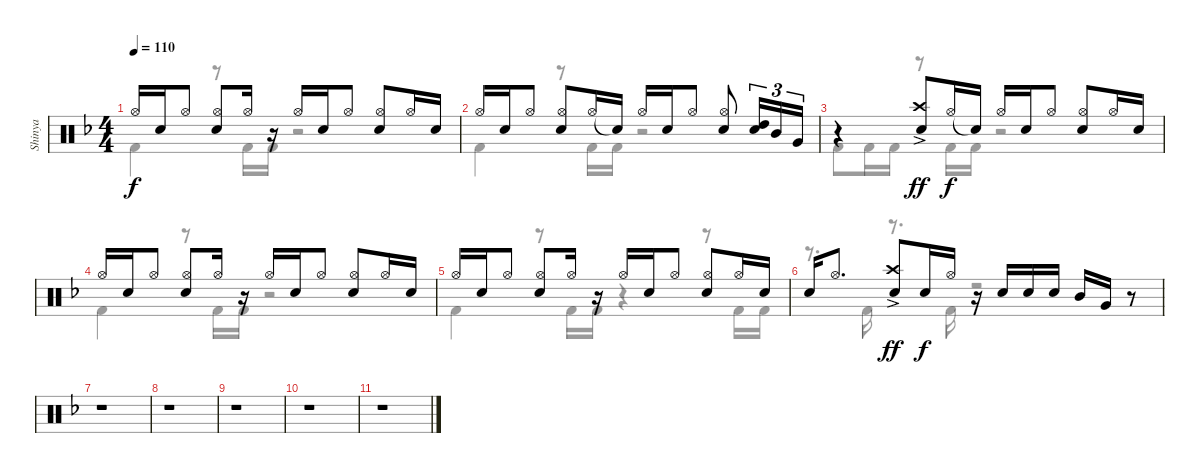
\track ("Shinya" "Shinya") {instrument percussion}
\staff {score}
\articulation defaults
\voice
\ts (4 4)
\tempo 110
\clef neutral
\ks dminor "Hi-Hat (open)".16{dy f} "Snare (hit) 2".16 "Hi-Hat (open)".8
("Hi-Hat (open)" "Snare (hit) 2").8 "Hi-Hat (open)".16 r.16 "Hi-Hat (open)".16 "Snare (hit) 2".16 "Hi-Hat (open)".8 ("Hi-Hat (open)" "Snare (hit) 2").8 "Hi-Hat (open)".16 "Snare (hit) 2".16 |
"Hi-Hat (open)".16 "Snare (hit) 2".16 "Hi-Hat (open)".8 ("Hi-Hat (open)" "Snare (hit) 2").8 "Hi-Hat (open)".16 "Snare (hit)"{t}.16 "Hi-Hat (open)".16 "Snare (hit) 2".16 "Hi-Hat (open)".8 ("Hi-Hat (open)" "Snare (hit) 2").8 ("High Tom (hit)" "Snare (hit) 2").16{tu (3 2)} "Mid Tom (hit)".16{tu (3 2)} "Very Low Tom (hit)".16{tu (3 2)} |
r.4 ("Crash high (hit)"{ac} "Snare (hit) 2").8{dy ff} "Hi-Hat (open)".16{dy f} "Snare (hit)"{t}.16 "Hi-Hat (open)".16 "Snare (hit) 2".16 "Hi-Hat (open)".8 ("Hi-Hat (open)" "Snare (hit) 2").8 "Hi-Hat (open)".16 "Snare (hit) 2".16 |
"Hi-Hat (open)".16 "Snare (hit) 2".16 "Hi-Hat (open)".8 ("Hi-Hat (open)" "Snare (hit) 2").8 "Hi-Hat (open)".16 r.16 "Hi-Hat (open)".16 "Snare (hit) 2".16 "Hi-Hat (open)".8 ("Hi-Hat (open)" "Snare (hit) 2").8 "Hi-Hat (open)".16 "Snare (hit) 2".16 |
"Hi-Hat (open)".16 "Snare (hit) 2".16 "Hi-Hat (open)".8 ("Hi-Hat (open)" "Snare (hit) 2").8 "Hi-Hat (open)".16 r.16 "Hi-Hat (open)".16 "Snare (hit) 2".16 "Hi-Hat (open)".8 ("Hi-Hat (open)" "Snare (hit) 2").8 "Hi-Hat (open)".16 "Snare (hit) 2".16 |
"Snare (hit) 2".16 "Hi-Hat (open)".8{d} ("Crash high (hit)"{ac} "Snare (hit) 2").8{dy ff} "Snare (hit) 2".16{dy f} "Hi-Hat (open)".16 r.16 "Snare (hit) 2".16 "Snare (hit) 2".16 "Snare (hit) 2".16 "Mid Tom (hit)".16 "Very Low Tom (hit)".16 r.8 |
r.1 |
r.1 |
r.1 |
r.1 |
r.1
\voice
\clef neutral
\ottava regular
\simile none
\ks dminor "Kick (hit) 2".4{dy f}
r.8 "Kick (hit) 2".16 "Kick (hit) 2".16 r.2 |
"Kick (hit) 2".4 r.8 "Kick (hit) 2".16 "Kick (hit) 2".16 r.2 |
"Kick (hit) 2".8 "Kick (hit) 2".16 "Kick (hit) 2".16 r.8 "Kick (hit) 2".16 "Kick (hit) 2".16 r.2 |
"Kick (hit) 2".4 r.8 "Kick (hit) 2".16 "Kick (hit) 2".16 r.2 |
"Kick (hit) 2".4 r.8 "Kick (hit) 2".16 "Kick (hit) 2".16 r.4 r.8 "Kick (hit) 2".16 "Kick (hit) 2".16 |
r.8{d} "Kick (hit) 2".16 r.8{d} "Kick (hit) 2".16 r.2 |
r.1 |
r.1 |
r.1 |
r.1 |
r.1
